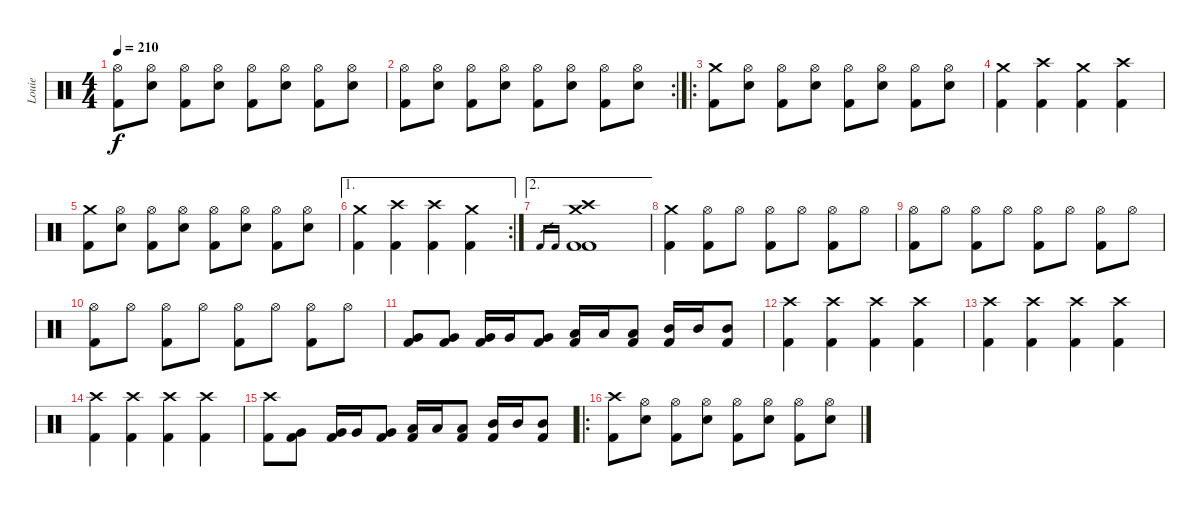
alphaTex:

\track ("Louie" "Louie") {instrument percussion}
\staff {score}
\articulation defaults
\ts (4 4)
\tempo 210
\clef neutral
\ks c
("Hi-Hat (open)" "Kick (hit) 2").8{dy f} ("Hi-Hat (open)" "Snare (hit) 2").8 ("Hi-Hat (open)" "Kick (hit) 2").8 ("Hi-Hat (open)" "Snare (hit) 2").8 ("Hi-Hat (open)" "Kick (hit) 2").8 ("Hi-Hat (open)" "Snare (hit) 2").8 ("Hi-Hat (open)" "Kick (hit) 2").8 ("Hi-Hat (open)" "Snare (hit) 2").8 |
\rc 2
("Hi-Hat (open)" "Kick (hit) 2").8 ("Hi-Hat (open)" "Snare (hit) 2").8 ("Hi-Hat (open)" "Kick (hit) 2").8 ("Hi-Hat (open)" "Snare (hit) 2").8 ("Hi-Hat (open)" "Kick (hit) 2").8 ("Hi-Hat (open)" "Snare (hit) 2").8 ("Hi-Hat (open)" "Kick (hit) 2").8 ("Hi-Hat (open)" "Snare (hit) 2").8 |
\ro
("Crash medium (hit)" "Kick (hit) 2").8 ("Hi-Hat (open)" "Snare (hit) 2").8 ("Hi-Hat (open)" "Kick (hit) 2").8 ("Hi-Hat (open)" "Snare (hit) 2").8 ("Hi-Hat (open)" "Kick (hit) 2").8 ("Hi-Hat (open)" "Snare (hit) 2").8 ("Hi-Hat (open)" "Kick (hit) 2").8 ("Hi-Hat (open)" "Snare (hit) 2").8 |
("Crash medium (hit)" "Kick (hit) 2").4 ("Crash high (hit)" "Kick (hit) 2").4 ("Crash medium (hit)" "Kick (hit) 2").4 ("Crash high (hit)" "Kick (hit) 2").4 |
("Crash medium (hit)" "Kick (hit) 2").8 ("Hi-Hat (open)" "Snare (hit) 2").8 ("Hi-Hat (open)" "Kick (hit) 2").8 ("Hi-Hat (open)" "Snare (hit) 2").8 ("Hi-Hat (open)" "Kick (hit) 2").8 ("Hi-Hat (open)" "Snare (hit) 2").8 ("Hi-Hat (open)" "Kick (hit) 2").8 ("Hi-Hat (open)" "Snare (hit) 2").8 |
\ae 1
\rc 2
("Crash medium (hit)" "Kick (hit) 2").4 ("Crash high (hit)" "Kick (hit) 2").4 ("Crash high (hit)" "Kick (hit) 2").4 ("Crash medium (hit)" "Kick (hit) 2").4 |
\ae 2 "Kick (hit) 2".16{gr} "Kick (hit) 2".16{gr}
("Crash medium (hit)" "Crash high (hit)" "Kick (hit) 2" "Kick (hit) 2").1 |
("Crash medium (hit)" "Kick (hit) 2").4 ("Hi-Hat (open)" "Kick (hit) 2").8 "Hi-Hat (open)".8 ("Hi-Hat (open)" "Kick (hit) 2").8 "Hi-Hat (open)".8 ("Hi-Hat (open)" "Kick (hit) 2").8 "Hi-Hat (open)".8 |
("Hi-Hat (open)" "Kick (hit) 2").8 "Hi-Hat (open)".8 ("Hi-Hat (open)" "Kick (hit) 2").8 "Hi-Hat (open)".8 ("Hi-Hat (open)" "Kick (hit) 2").8 "Hi-Hat (open)".8 ("Hi-Hat (open)" "Kick (hit) 2").8 "Hi-Hat (open)".8 |
("Hi-Hat (open)" "Kick (hit) 2").8 "Hi-Hat (open)".8 ("Hi-Hat (open)" "Kick (hit) 2").8 "Hi-Hat (open)".8 ("Hi-Hat (open)" "Kick (hit) 2").8 "Hi-Hat (open)".8 ("Hi-Hat (open)" "Kick (hit) 2").8 "Hi-Hat (open)".8 |
("Very Low Tom (hit)" "Kick (hit) 2").8 ("Very Low Tom (hit)" "Kick (hit) 2").8 ("Very Low Tom (hit)" "Kick (hit) 2").16 "Very Low Tom (hit)".16 ("Very Low Tom (hit)" "Kick (hit) 2").8 ("Low Tom (hit)" "Kick (hit) 2").16 "Low Tom (hit)".16 ("Low Tom (hit)" "Kick (hit) 2").8 ("Mid Tom (hit)" "Kick (hit) 2").16 "Mid Tom (hit)".16 ("Mid Tom (hit)" "Kick (hit) 2").8 |
("Crash high (hit)" "Kick (hit) 2").4 ("Crash high (hit)" "Kick (hit) 2").4 ("Crash high (hit)" "Kick (hit) 2").4 ("Crash high (hit)" "Kick (hit) 2").4 |
("Crash high (hit)" "Kick (hit) 2").4 ("Crash high (hit)" "Kick (hit) 2").4 ("Crash high (hit)" "Kick (hit) 2").4 ("Crash high (hit)" "Kick (hit) 2").4 |
("Crash high (hit)" "Kick (hit) 2").4 ("Crash high (hit)" "Kick (hit) 2").4 ("Crash high (hit)" "Kick (hit) 2").4 ("Crash high (hit)" "Kick (hit) 2").4 |
("Crash high (hit)" "Kick (hit) 2").8 ("Very Low Tom (hit)" "Kick (hit) 2").8 ("Very Low Tom (hit)" "Kick (hit) 2").16 "Very Low Tom (hit)".16 ("Very Low Tom (hit)" "Kick (hit) 2").8 ("Low Tom (hit)" "Kick (hit) 2").16 "Low Tom (hit)".16 ("Low Tom (hit)" "Kick (hit) 2").8 ("Mid Tom (hit)" "Kick (hit) 2").16 "Mid Tom (hit)".16 ("Mid Tom (hit)" "Kick (hit) 2").8 |
\ro
("Crash high (hit)" "Kick (hit) 2").8 ("Hi-Hat (open)" "Snare (hit) 2").8 ("Hi-Hat (open)" "Kick (hit) 2").8 ("Hi-Hat (open)" "Snare (hit) 2").8 ("Hi-Hat (open)" "Kick (hit) 2").8 ("Hi-Hat (open)" "Snare (hit) 2").8 ("Hi-Hat (open)" "Kick (hit) 2").8 ("Hi-Hat (open)" "Snare (hit) 2").8
